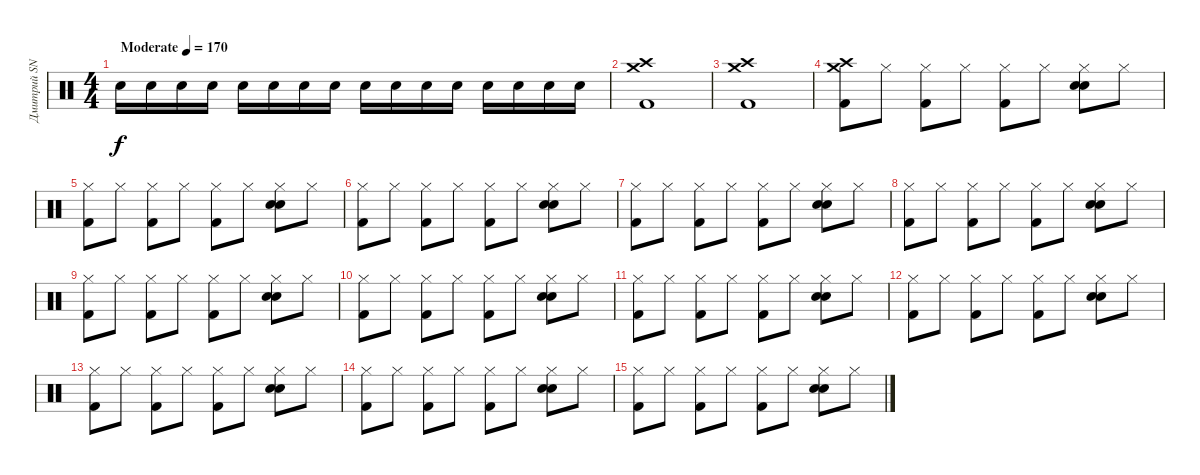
\track ("Дмитрий SNAKE Хакимов" "Дмитрий SN") {instrument percussion}
\staff {score}
\articulation defaults
\ts (4 4)
\tempo (170 "Moderate")
\clef neutral
\ks c "Electric Snare (hit)".16{dy f} "Electric Snare (hit)".16 "Electric Snare (hit)".16 "Electric Snare (hit)".16 "Electric Snare (hit)".16 "Electric Snare (hit)".16 "Electric Snare (hit)".16 "Electric Snare (hit)".16 "Electric Snare (hit)".16 "Electric Snare (hit)".16 "Electric Snare (hit)".16 "Electric Snare (hit)".16 "Electric Snare (hit)".16 "Electric Snare (hit)".16 "Electric Snare (hit)".16 "Electric Snare (hit)".16
|
("Crash high (hit)" "Crash medium (hit)" "Kick (hit) 2").1 |
("Crash high (hit)" "Crash medium (hit)" "Kick (hit) 2").1 |
("Crash high (hit)" "Crash medium (hit)" "Kick (hit) 2").8 "Hi-Hat (closed)".8 ("Hi-Hat (closed)" "Kick (hit) 2").8 "Hi-Hat (closed)".8 ("Hi-Hat (closed)" "Kick (hit) 2").8 "Hi-Hat (closed)".8 ("Hi-Hat (closed)" "Hand Clap (hit)" "Snare (hit) 2").8 "Hi-Hat (closed)".8 |
("Hi-Hat (closed)" "Kick (hit) 2").8 "Hi-Hat (closed)".8 ("Hi-Hat (closed)" "Kick (hit) 2").8 "Hi-Hat (closed)".8 ("Hi-Hat (closed)" "Kick (hit) 2").8 "Hi-Hat (closed)".8 ("Hi-Hat (closed)" "Hand Clap (hit)" "Snare (hit) 2").8 "Hi-Hat (closed)".8 |
("Hi-Hat (closed)" "Kick (hit) 2").8 "Hi-Hat (closed)".8 ("Hi-Hat (closed)" "Kick (hit) 2").8 "Hi-Hat (closed)".8 ("Hi-Hat (closed)" "Kick (hit) 2").8 "Hi-Hat (closed)".8 ("Hi-Hat (closed)" "Hand Clap (hit)" "Snare (hit) 2").8 "Hi-Hat (closed)".8 |
("Hi-Hat (closed)" "Kick (hit) 2").8 "Hi-Hat (closed)".8 ("Hi-Hat (closed)" "Kick (hit) 2").8 "Hi-Hat (closed)".8 ("Hi-Hat (closed)" "Kick (hit) 2").8 "Hi-Hat (closed)".8 ("Hi-Hat (closed)" "Hand Clap (hit)" "Snare (hit) 2").8 "Hi-Hat (closed)".8 |
("Hi-Hat (closed)" "Kick (hit) 2").8 "Hi-Hat (closed)".8 ("Hi-Hat (closed)" "Kick (hit) 2").8 "Hi-Hat (closed)".8 ("Hi-Hat (closed)" "Kick (hit) 2").8 "Hi-Hat (closed)".8 ("Hi-Hat (closed)" "Hand Clap (hit)" "Snare (hit) 2").8 "Hi-Hat (closed)".8 |
("Hi-Hat (closed)" "Kick (hit) 2").8 "Hi-Hat (closed)".8 ("Hi-Hat (closed)" "Kick (hit) 2").8 "Hi-Hat (closed)".8 ("Hi-Hat (closed)" "Kick (hit) 2").8 "Hi-Hat (closed)".8 ("Hi-Hat (closed)" "Hand Clap (hit)" "Snare (hit) 2").8 "Hi-Hat (closed)".8 |
("Hi-Hat (closed)" "Kick (hit) 2").8 "Hi-Hat (closed)".8 ("Hi-Hat (closed)" "Kick (hit) 2").8 "Hi-Hat (closed)".8 ("Hi-Hat (closed)" "Kick (hit) 2").8 "Hi-Hat (closed)".8 ("Hi-Hat (closed)" "Hand Clap (hit)" "Snare (hit) 2").8 "Hi-Hat (closed)".8 |
("Hi-Hat (closed)" "Kick (hit) 2").8 "Hi-Hat (closed)".8 ("Hi-Hat (closed)" "Kick (hit) 2").8 "Hi-Hat (closed)".8 ("Hi-Hat (closed)" "Kick (hit) 2").8 "Hi-Hat (closed)".8 ("Hi-Hat (closed)" "Hand Clap (hit)" "Snare (hit) 2").8 "Hi-Hat (closed)".8 |
("Hi-Hat (closed)" "Kick (hit) 2").8 "Hi-Hat (closed)".8 ("Hi-Hat (closed)" "Kick (hit) 2").8 "Hi-Hat (closed)".8 ("Hi-Hat (closed)" "Kick (hit) 2").8 "Hi-Hat (closed)".8 ("Hi-Hat (closed)" "Hand Clap (hit)" "Snare (hit) 2").8 "Hi-Hat (closed)".8 |
("Hi-Hat (closed)" "Kick (hit) 2").8 "Hi-Hat (closed)".8 ("Hi-Hat (closed)" "Kick (hit) 2").8 "Hi-Hat (closed)".8 ("Hi-Hat (closed)" "Kick (hit) 2").8 "Hi-Hat (closed)".8 ("Hi-Hat (closed)" "Hand Clap (hit)" "Snare (hit) 2").8 "Hi-Hat (closed)".8 |
("Hi-Hat (closed)" "Kick (hit) 2").8 "Hi-Hat (closed)".8 ("Hi-Hat (closed)" "Kick (hit) 2").8 "Hi-Hat (closed)".8 ("Hi-Hat (closed)" "Kick (hit) 2").8 "Hi-Hat (closed)".8 ("Hi-Hat (closed)" "Hand Clap (hit)" "Snare (hit) 2").8 "Hi-Hat (closed)".8 |
("Hi-Hat (closed)" "Kick (hit) 2").8 "Hi-Hat (closed)".8 ("Hi-Hat (closed)" "Kick (hit) 2").8 "Hi-Hat (closed)".8 ("Hi-Hat (closed)" "Kick (hit) 2").8 "Hi-Hat (closed)".8 ("Hi-Hat (closed)" "Hand Clap (hit)" "Snare (hit) 2").8 "Hi-Hat (closed)".8
